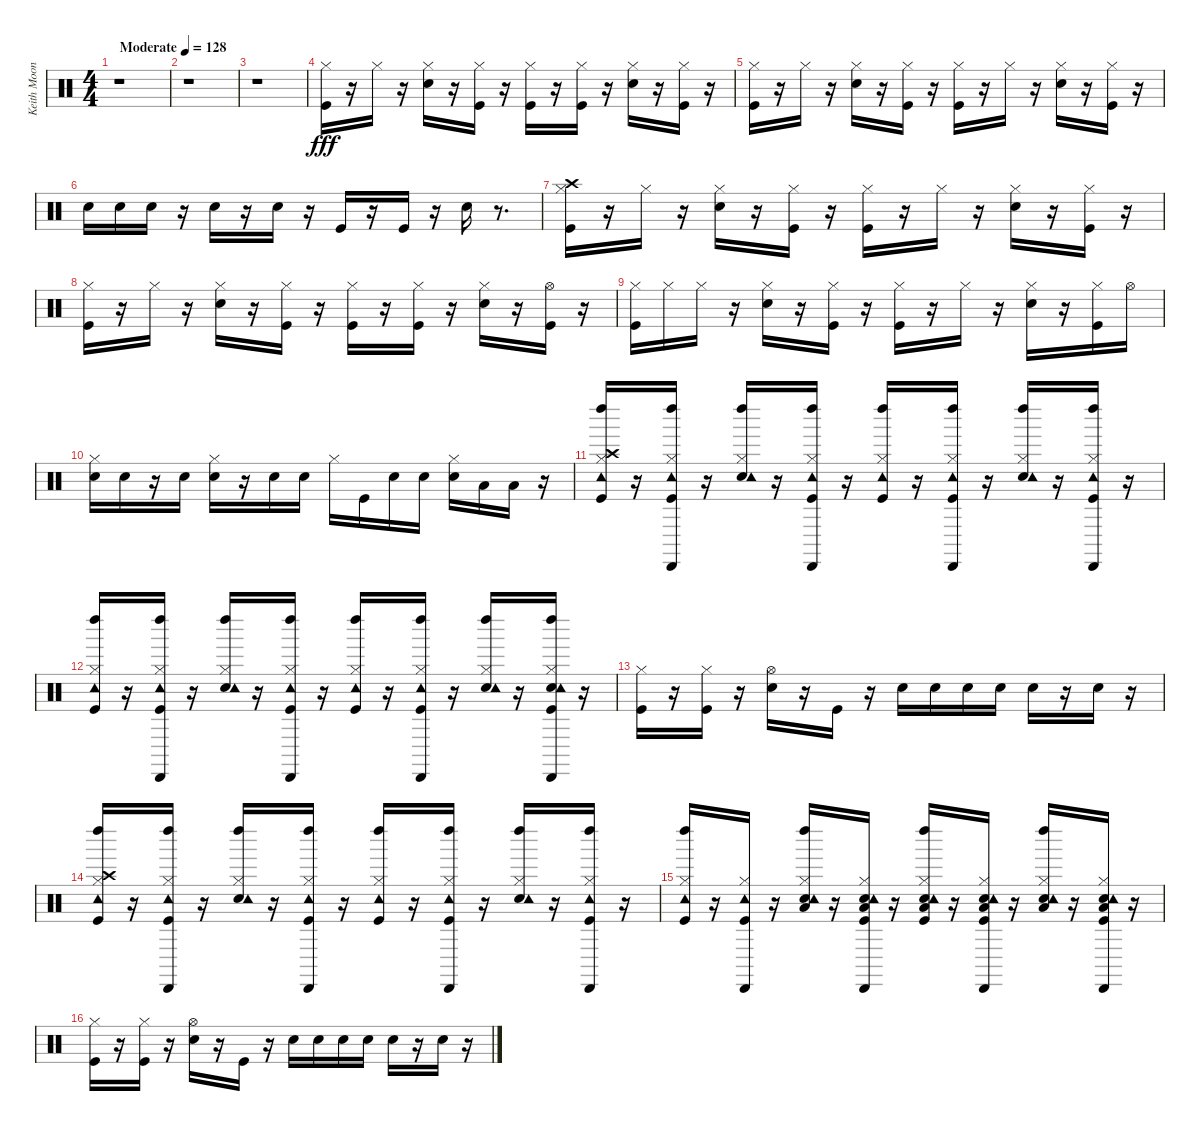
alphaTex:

\track ("Keith Moon" "Keith Moon") {instrument percussion}
\staff {score}
\articulation defaults
\ts (4 4)
\tempo (128 "Moderate")
\clef neutral
\ks c
r.1{dy fff} |
r.1 |
r.1 |
("Kick (hit)" "Hi-Hat (closed)").16 r.16 "Hi-Hat (closed)".16 r.16 ("Snare (hit) 2" "Hi-Hat (closed)").16 r.16 ("Kick (hit)" "Hi-Hat (closed)").16 r.16 ("Kick (hit)" "Hi-Hat (closed)").16 r.16 ("Kick (hit)" "Hi-Hat (closed)").16 r.16 ("Snare (hit) 2" "Hi-Hat (closed)").16 r.16 ("Kick (hit)" "Hi-Hat (closed)").16 r.16 |
("Kick (hit)" "Hi-Hat (closed)").16 r.16 "Hi-Hat (closed)".16 r.16 ("Snare (hit) 2" "Hi-Hat (closed)").16 r.16 ("Kick (hit)" "Hi-Hat (closed)").16 r.16 ("Kick (hit)" "Hi-Hat (closed)").16 r.16 "Hi-Hat (closed)".16 r.16 ("Snare (hit) 2" "Hi-Hat (closed)").16 r.16 ("Kick (hit)" "Hi-Hat (closed)").16 r.16 |
"Snare (hit) 2".16 "Snare (hit) 2".16 "Snare (hit) 2".16 r.16 "Snare (hit) 2".16 r.16 "Snare (hit) 2".16 r.16 "Kick (hit)".16 r.16 "Kick (hit)".16 r.16 "Snare (hit) 2".16 r.8{d} |
("Kick (hit)" "Hi-Hat (closed)" "Crash high (hit)").16 r.16 "Hi-Hat (closed)".16 r.16 ("Snare (hit) 2" "Hi-Hat (closed)").16 r.16 ("Kick (hit)" "Hi-Hat (closed)").16 r.16 ("Kick (hit)" "Hi-Hat (closed)").16 r.16 "Hi-Hat (closed)".16 r.16 ("Snare (hit) 2" "Hi-Hat (closed)").16 r.16 ("Kick (hit)" "Hi-Hat (closed)").16 r.16 |
("Kick (hit)" "Hi-Hat (closed)").16 r.16 "Hi-Hat (closed)".16 r.16 ("Snare (hit) 2" "Hi-Hat (closed)").16 r.16 ("Kick (hit)" "Hi-Hat (closed)").16 r.16 ("Kick (hit)" "Hi-Hat (closed)").16 r.16 ("Kick (hit)" "Hi-Hat (closed)").16 r.16 ("Snare (hit) 2" "Hi-Hat (closed)").16 r.16 ("Kick (hit)" "Hi-Hat (open)").16 r.16 |
("Kick (hit)" "Hi-Hat (closed)").16 "Hi-Hat (closed)".16 "Hi-Hat (closed)".16 r.16 ("Snare (hit) 2" "Hi-Hat (closed)").16 r.16 ("Kick (hit)" "Hi-Hat (closed)").16 r.16 ("Kick (hit)" "Hi-Hat (closed)").16 r.16 "Hi-Hat (closed)".16 r.16 ("Snare (hit) 2" "Hi-Hat (closed)").16 r.16 ("Kick (hit)" "Hi-Hat (closed)").16 "Hi-Hat (open)".16 |
("Snare (hit) 2" "Hi-Hat (closed)").16 "Snare (hit) 2".16 r.16 "Snare (hit) 2".16 ("Snare (hit) 2" "Hi-Hat (closed)").16 r.16 "Snare (hit) 2".16 "Snare (hit) 2".16 "Hi-Hat (closed)".16 "Kick (hit)".16 "Snare (hit) 2".16 "Snare (hit) 2".16 ("Snare (hit) 2" "Hi-Hat (closed)").16 "Low Tom (hit)".16 "Low Floor Tom (hit)".16 r.16 |
("Kick (hit)" "Hi-Hat (closed)" "Crash high (hit)" "Tambourine (hit)" "Left Maraca (hit)").16 r.16 ("Kick (hit)" "Hi-Hat (closed)" "Tambourine (hit)" "Left Maraca (hit)" "Cabasa (hit)").16 r.16 ("Snare (hit) 2" "Hi-Hat (closed)" "Tambourine (hit)" "Left Maraca (hit)").16 r.16 ("Kick (hit)" "Hi-Hat (closed)" "Tambourine (hit)" "Left Maraca (hit)" "Cabasa (hit)").16 r.16 ("Kick (hit)" "Hi-Hat (closed)" "Tambourine (hit)" "Left Maraca (hit)").16 r.16 ("Kick (hit)" "Hi-Hat (closed)" "Tambourine (hit)" "Left Maraca (hit)" "Cabasa (hit)").16 r.16 ("Snare (hit) 2" "Hi-Hat (closed)" "Tambourine (hit)" "Left Maraca (hit)").16 r.16 ("Kick (hit)" "Hi-Hat (closed)" "Tambourine (hit)" "Left Maraca (hit)" "Cabasa (hit)").16 r.16 |
("Kick (hit)" "Hi-Hat (closed)" "Tambourine (hit)" "Left Maraca (hit)").16 r.16 ("Kick (hit)" "Hi-Hat (closed)" "Tambourine (hit)" "Left Maraca (hit)" "Cabasa (hit)").16 r.16 ("Snare (hit) 2" "Hi-Hat (closed)" "Tambourine (hit)" "Left Maraca (hit)").16 r.16 ("Kick (hit)" "Hi-Hat (closed)" "Tambourine (hit)" "Left Maraca (hit)" "Cabasa (hit)").16 r.16 ("Kick (hit)" "Hi-Hat (closed)" "Tambourine (hit)" "Left Maraca (hit)").16 r.16 ("Kick (hit)" "Hi-Hat (closed)" "Tambourine (hit)" "Left Maraca (hit)" "Cabasa (hit)").16 r.16 ("Snare (hit) 2" "Hi-Hat (closed)" "Tambourine (hit)" "Left Maraca (hit)").16 r.16 ("Kick (hit)" "Snare (hit) 2" "Hi-Hat (closed)" "Tambourine (hit)" "Left Maraca (hit)" "Cabasa (hit)").16 r.16 |
("Kick (hit)" "Hi-Hat (closed)").16 r.16 ("Kick (hit)" "Hi-Hat (closed)").16 r.16 ("Snare (hit) 2" "Hi-Hat (open)").16 r.16 "Kick (hit)".16 r.16 "Snare (hit) 2".16 "Snare (hit) 2".16 "Snare (hit) 2".16 "Snare (hit) 2".16 "Snare (hit) 2".16 r.16 "Snare (hit) 2".16 r.16 |
("Kick (hit)" "Hi-Hat (closed)" "Crash high (hit)" "Tambourine (hit)" "Left Maraca (hit)").16 r.16 ("Kick (hit)" "Hi-Hat (closed)" "Tambourine (hit)" "Left Maraca (hit)" "Cabasa (hit)").16 r.16 ("Snare (hit) 2" "Hi-Hat (closed)" "Tambourine (hit)" "Left Maraca (hit)").16 r.16 ("Kick (hit)" "Hi-Hat (closed)" "Tambourine (hit)" "Left Maraca (hit)" "Cabasa (hit)").16 r.16 ("Kick (hit)" "Hi-Hat (closed)" "Tambourine (hit)" "Left Maraca (hit)").16 r.16 ("Kick (hit)" "Hi-Hat (closed)" "Tambourine (hit)" "Left Maraca (hit)" "Cabasa (hit)").16 r.16 ("Snare (hit) 2" "Hi-Hat (closed)" "Tambourine (hit)" "Left Maraca (hit)").16 r.16 ("Kick (hit)" "Hi-Hat (closed)" "Tambourine (hit)" "Left Maraca (hit)" "Cabasa (hit)").16 r.16 |
("Kick (hit)" "Hi-Hat (closed)" "Tambourine (hit)" "Left Maraca (hit)").16 r.16 ("Kick (hit)" "Hi-Hat (closed)" "Tambourine (hit)" "Cabasa (hit)").16 r.16 ("Snare (hit) 2" "Hi-Hat (closed)" "Low Floor Tom (hit)" "Tambourine (hit)" "Left Maraca (hit)").16 r.16 ("Kick (hit)" "Snare (hit) 2" "Hi-Hat (closed)" "Low Floor Tom (hit)" "Tambourine (hit)" "Cabasa (hit)").16 r.16 ("Kick (hit)" "Snare (hit) 2" "Hi-Hat (closed)" "Low Floor Tom (hit)" "Tambourine (hit)" "Left Maraca (hit)").16 r.16 ("Kick (hit)" "Snare (hit) 2" "Hi-Hat (closed)" "Low Floor Tom (hit)" "Tambourine (hit)" "Cabasa (hit)").16 r.16 ("Snare (hit) 2" "Hi-Hat (closed)" "Low Floor Tom (hit)" "Tambourine (hit)" "Left Maraca (hit)").16 r.16 ("Kick (hit)" "Snare (hit) 2" "Hi-Hat (closed)" "Low Floor Tom (hit)" "Tambourine (hit)" "Cabasa (hit)").16 r.16 |
("Kick (hit)" "Hi-Hat (closed)").16 r.16 ("Kick (hit)" "Hi-Hat (closed)").16 r.16 ("Snare (hit) 2" "Hi-Hat (open)").16 r.16 "Kick (hit)".16 r.16 "Snare (hit) 2".16 "Snare (hit) 2".16 "Snare (hit) 2".16 "Snare (hit) 2".16 "Snare (hit) 2".16 r.16 "Snare (hit) 2".16 r.16
